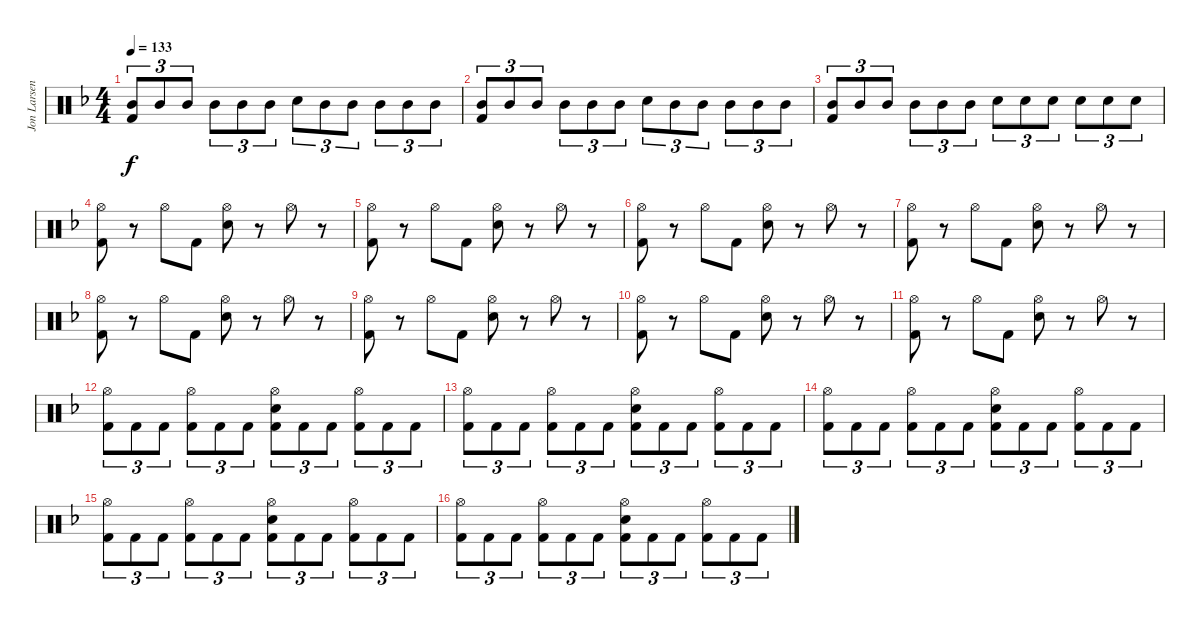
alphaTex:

\track ("Jon Larsen" "Jon Larsen") {instrument percussion}
\staff {score}
\articulation defaults
\ts (4 4)
\tempo 133
\clef neutral
\ks f
("Mid Tom (hit)" "Kick (hit) 2").8{tu (3 2) dy f} "Mid Tom (hit)".8{tu (3 2)} "Mid Tom (hit)".8{tu (3 2)} "Mid Tom (hit)".8{tu (3 2)} "Mid Tom (hit)".8{tu (3 2)} "Mid Tom (hit)".8{tu (3 2)} "Electric Snare (hit)".8{tu (3 2)} "Mid Tom (hit)".8{tu (3 2)} "Mid Tom (hit)".8{tu (3 2)} "Mid Tom (hit)".8{tu (3 2)} "Mid Tom (hit)".8{tu (3 2)} "Mid Tom (hit)".8{tu (3 2)} |
("Mid Tom (hit)" "Kick (hit) 2").8{tu (3 2)} "Mid Tom (hit)".8{tu (3 2)} "Mid Tom (hit)".8{tu (3 2)} "Mid Tom (hit)".8{tu (3 2)} "Mid Tom (hit)".8{tu (3 2)} "Mid Tom (hit)".8{tu (3 2)} "Electric Snare (hit)".8{tu (3 2)} "Mid Tom (hit)".8{tu (3 2)} "Mid Tom (hit)".8{tu (3 2)} "Mid Tom (hit)".8{tu (3 2)} "Mid Tom (hit)".8{tu (3 2)} "Mid Tom (hit)".8{tu (3 2)} |
("Mid Tom (hit)" "Kick (hit) 2").8{tu (3 2)} "Mid Tom (hit)".8{tu (3 2)} "Mid Tom (hit)".8{tu (3 2)} "Mid Tom (hit)".8{tu (3 2)} "Mid Tom (hit)".8{tu (3 2)} "Mid Tom (hit)".8{tu (3 2)} "Electric Snare (hit)".8{tu (3 2)} "Electric Snare (hit)".8{tu (3 2)} "Electric Snare (hit)".8{tu (3 2)} "Electric Snare (hit)".8{tu (3 2)} "Electric Snare (hit)".8{tu (3 2)} "Electric Snare (hit)".8{tu (3 2)} |
("Hi-Hat (open)" "Kick (hit) 2").8 r.8 "Hi-Hat (open)".8 "Kick (hit) 2".8 ("Hi-Hat (open)" "Electric Snare (hit)").8 r.8 "Hi-Hat (open)".8 r.8 |
("Hi-Hat (open)" "Kick (hit) 2").8 r.8 "Hi-Hat (open)".8 "Kick (hit) 2".8 ("Hi-Hat (open)" "Electric Snare (hit)").8 r.8 "Hi-Hat (open)".8 r.8 |
("Hi-Hat (open)" "Kick (hit) 2").8 r.8 "Hi-Hat (open)".8 "Kick (hit) 2".8 ("Hi-Hat (open)" "Electric Snare (hit)").8 r.8 "Hi-Hat (open)".8 r.8 |
("Hi-Hat (open)" "Kick (hit) 2").8 r.8 "Hi-Hat (open)".8 "Kick (hit) 2".8 ("Hi-Hat (open)" "Electric Snare (hit)").8 r.8 "Hi-Hat (open)".8 r.8 |
("Hi-Hat (open)" "Kick (hit) 2").8 r.8 "Hi-Hat (open)".8 "Kick (hit) 2".8 ("Hi-Hat (open)" "Electric Snare (hit)").8 r.8 "Hi-Hat (open)".8 r.8 |
("Hi-Hat (open)" "Kick (hit) 2").8 r.8 "Hi-Hat (open)".8 "Kick (hit) 2".8 ("Hi-Hat (open)" "Electric Snare (hit)").8 r.8 "Hi-Hat (open)".8 r.8 |
("Hi-Hat (open)" "Kick (hit) 2").8 r.8 "Hi-Hat (open)".8 "Kick (hit) 2".8 ("Hi-Hat (open)" "Electric Snare (hit)").8 r.8 "Hi-Hat (open)".8 r.8 |
("Hi-Hat (open)" "Kick (hit) 2").8 r.8 "Hi-Hat (open)".8 "Kick (hit) 2".8 ("Hi-Hat (open)" "Electric Snare (hit)").8 r.8 "Hi-Hat (open)".8 r.8 |
("Hi-Hat (open)" "Kick (hit) 2").8{tu (3 2)} "Kick (hit) 2".8{tu (3 2)} "Kick (hit) 2".8{tu (3 2)} ("Hi-Hat (open)" "Kick (hit) 2").8{tu (3 2)} "Kick (hit) 2".8{tu (3 2)} "Kick (hit) 2".8{tu (3 2)} ("Hi-Hat (open)" "Kick (hit) 2" "Electric Snare (hit)").8{tu (3 2)} "Kick (hit) 2".8{tu (3 2)} "Kick (hit) 2".8{tu (3 2)} ("Hi-Hat (open)" "Kick (hit) 2").8{tu (3 2)} "Kick (hit) 2".8{tu (3 2)} "Kick (hit) 2".8{tu (3 2)} |
("Hi-Hat (open)" "Kick (hit) 2").8{tu (3 2)} "Kick (hit) 2".8{tu (3 2)} "Kick (hit) 2".8{tu (3 2)} ("Hi-Hat (open)" "Kick (hit) 2").8{tu (3 2)} "Kick (hit) 2".8{tu (3 2)} "Kick (hit) 2".8{tu (3 2)} ("Hi-Hat (open)" "Kick (hit) 2" "Electric Snare (hit)").8{tu (3 2)} "Kick (hit) 2".8{tu (3 2)} "Kick (hit) 2".8{tu (3 2)} ("Hi-Hat (open)" "Kick (hit) 2").8{tu (3 2)} "Kick (hit) 2".8{tu (3 2)} "Kick (hit) 2".8{tu (3 2)} |
("Hi-Hat (open)" "Kick (hit) 2").8{tu (3 2)} "Kick (hit) 2".8{tu (3 2)} "Kick (hit) 2".8{tu (3 2)} ("Hi-Hat (open)" "Kick (hit) 2").8{tu (3 2)} "Kick (hit) 2".8{tu (3 2)} "Kick (hit) 2".8{tu (3 2)} ("Hi-Hat (open)" "Kick (hit) 2" "Electric Snare (hit)").8{tu (3 2)} "Kick (hit) 2".8{tu (3 2)} "Kick (hit) 2".8{tu (3 2)} ("Hi-Hat (open)" "Kick (hit) 2").8{tu (3 2)} "Kick (hit) 2".8{tu (3 2)} "Kick (hit) 2".8{tu (3 2)} |
("Hi-Hat (open)" "Kick (hit) 2").8{tu (3 2)} "Kick (hit) 2".8{tu (3 2)} "Kick (hit) 2".8{tu (3 2)} ("Hi-Hat (open)" "Kick (hit) 2").8{tu (3 2)} "Kick (hit) 2".8{tu (3 2)} "Kick (hit) 2".8{tu (3 2)} ("Hi-Hat (open)" "Kick (hit) 2" "Electric Snare (hit)").8{tu (3 2)} "Kick (hit) 2".8{tu (3 2)} "Kick (hit) 2".8{tu (3 2)} ("Hi-Hat (open)" "Kick (hit) 2").8{tu (3 2)} "Kick (hit) 2".8{tu (3 2)} "Kick (hit) 2".8{tu (3 2)} |
("Hi-Hat (open)" "Kick (hit) 2").8{tu (3 2)} "Kick (hit) 2".8{tu (3 2)} "Kick (hit) 2".8{tu (3 2)} ("Hi-Hat (open)" "Kick (hit) 2").8{tu (3 2)} "Kick (hit) 2".8{tu (3 2)} "Kick (hit) 2".8{tu (3 2)} ("Hi-Hat (open)" "Kick (hit) 2" "Electric Snare (hit)").8{tu (3 2)} "Kick (hit) 2".8{tu (3 2)} "Kick (hit) 2".8{tu (3 2)} ("Hi-Hat (open)" "Kick (hit) 2").8{tu (3 2)} "Kick (hit) 2".8{tu (3 2)} "Kick (hit) 2".8{tu (3 2)}
